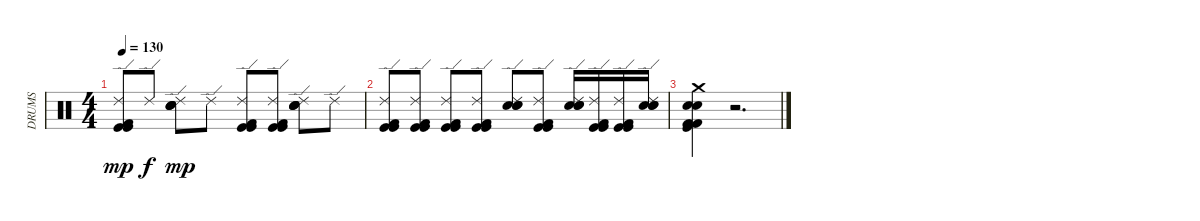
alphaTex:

\track ("DRUMS" "DRUMS") {instrument percussion}
\staff {score}
\articulation defaults
\ts (4 4)
\tempo 130
\clef neutral
\ks c
("Ride (edge) 2" "Kick (hit) 2" "Kick (hit)" "Kick (hit)").8{dy mp} "Ride (edge) 2".8{dy f} ("Ride (edge) 2" "Electric Snare (hit)" "Snare (hit) 2" "Snare (hit) 2").8{dy mp} "Ride (edge) 2".8 ("Ride (edge) 2" "Kick (hit) 2" "Kick (hit)" "Kick (hit)").8 ("Ride (edge) 2" "Kick (hit) 2" "Kick (hit)" "Kick (hit)").8 ("Ride (edge) 2" "Electric Snare (hit)" "Snare (hit) 2" "Snare (hit) 2").8 "Ride (edge) 2".8 |
("Ride (edge) 2" "Kick (hit) 2" "Kick (hit)" "Kick (hit)").8 ("Ride (edge) 2" "Kick (hit) 2" "Kick (hit)" "Kick (hit)").8 ("Ride (edge) 2" "Kick (hit) 2" "Kick (hit)" "Kick (hit)").8 ("Ride (edge) 2" "Kick (hit) 2" "Kick (hit)" "Kick (hit)").8 ("Ride (edge) 2" "Electric Snare (hit)" "Snare (hit) 2" "Snare (hit) 2").8 ("Ride (edge) 2" "Kick (hit) 2" "Kick (hit)" "Kick (hit)").8 ("Ride (edge) 2" "Electric Snare (hit)" "Snare (hit) 2" "Snare (hit) 2").16 ("Ride (edge) 2" "Kick (hit) 2" "Kick (hit)" "Kick (hit)").16 ("Ride (edge) 2" "Kick (hit) 2" "Kick (hit)" "Kick (hit)").16 ("Ride (edge) 2" "Electric Snare (hit)" "Snare (hit) 2" "Snare (hit) 2").16 |
("Kick (hit) 2" "Kick (hit)" "Snare (hit) 2" "Electric Snare (hit)" "Kick (hit) 2" "Crash medium (hit)").4{volume 10} r.2{d}
